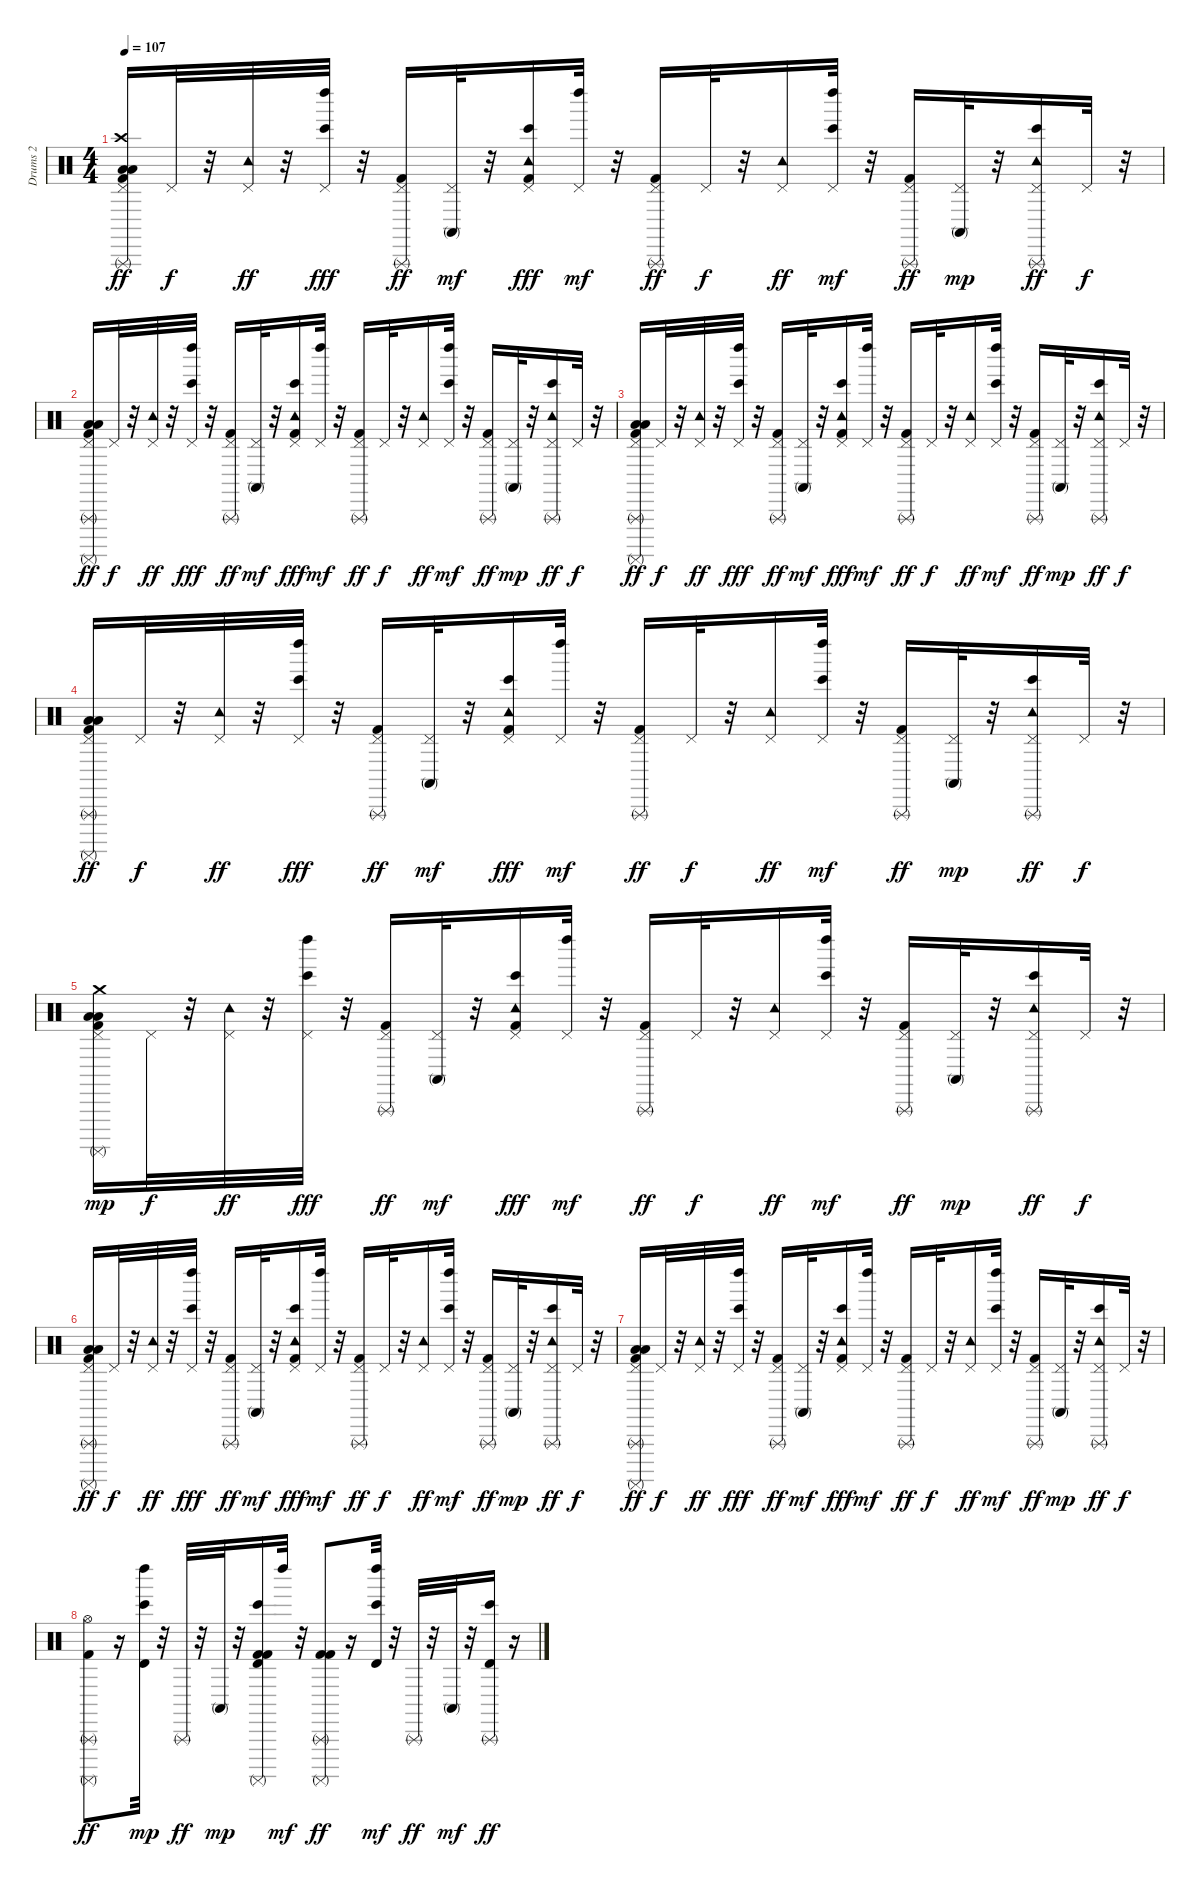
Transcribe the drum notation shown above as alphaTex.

\track ("Drums 2" "Drums 2") {instrument percussion}
\staff {score}
\articulation defaults
\ts (4 4)
\tempo 107
\clef neutral
\ks c
("Kick (hit) 2" "Pedal Hi-Hat (hit)" "Low Tom (hit)" "Low Floor Tom (hit)" "Crash high (hit)" "Triangle (rnute)").16{dy ff} "Pedal Hi-Hat (hit)".32{dy f} r.32 ("Tambourine (hit)" "Pedal Hi-Hat (hit)").32{dy ff} r.32 ("Pedal Hi-Hat (hit)" "Bongo High (hit)" "Left Maraca (hit)").32{dy fff} r.32 ("Kick (hit) 2" "Pedal Hi-Hat (hit)" "Triangle (rnute)").16{dy ff} ("Pedal Hi-Hat (hit)" "Conga high (mute)").32{dy mf} r.32 ("Kick (hit) 2" "Tambourine (hit)" "Pedal Hi-Hat (hit)" "Bongo High (hit)").16{dy fff} ("Pedal Hi-Hat (hit)" "Left Maraca (hit)").32{dy mf} r.32 ("Kick (hit) 2" "Pedal Hi-Hat (hit)" "Triangle (rnute)").16{dy ff} "Pedal Hi-Hat (hit)".32{dy f} r.32 ("Tambourine (hit)" "Pedal Hi-Hat (hit)").16{dy ff} ("Pedal Hi-Hat (hit)" "Bongo High (hit)" "Left Maraca (hit)").32{dy mf} r.32 ("Kick (hit) 2" "Pedal Hi-Hat (hit)" "Triangle (rnute)").16{dy ff} ("Pedal Hi-Hat (hit)" "Conga high (mute)").32{dy mp} r.32 ("Tambourine (hit)" "Pedal Hi-Hat (hit)" "Bongo High (hit)" "Triangle (rnute)").16{dy ff} "Pedal Hi-Hat (hit)".32{dy f} r.32 |
("Kick (hit) 2" "Pedal Hi-Hat (hit)" "Low Tom (hit)" "Low Floor Tom (hit)" "Surdo (mute)" "Triangle (rnute)").16{dy ff} "Pedal Hi-Hat (hit)".32{dy f} r.32 ("Tambourine (hit)" "Pedal Hi-Hat (hit)").32{dy ff} r.32 ("Pedal Hi-Hat (hit)" "Bongo High (hit)" "Left Maraca (hit)").32{dy fff} r.32 ("Kick (hit) 2" "Pedal Hi-Hat (hit)" "Triangle (rnute)").16{dy ff} ("Pedal Hi-Hat (hit)" "Conga high (mute)").32{dy mf} r.32 ("Kick (hit) 2" "Tambourine (hit)" "Pedal Hi-Hat (hit)" "Bongo High (hit)").16{dy fff} ("Pedal Hi-Hat (hit)" "Left Maraca (hit)").32{dy mf} r.32 ("Kick (hit) 2" "Pedal Hi-Hat (hit)" "Triangle (rnute)").16{dy ff} "Pedal Hi-Hat (hit)".32{dy f} r.32 ("Tambourine (hit)" "Pedal Hi-Hat (hit)").16{dy ff} ("Pedal Hi-Hat (hit)" "Bongo High (hit)" "Left Maraca (hit)").32{dy mf} r.32 ("Kick (hit) 2" "Pedal Hi-Hat (hit)" "Triangle (rnute)").16{dy ff} ("Pedal Hi-Hat (hit)" "Conga high (mute)").32{dy mp} r.32 ("Tambourine (hit)" "Pedal Hi-Hat (hit)" "Bongo High (hit)" "Triangle (rnute)").16{dy ff} "Pedal Hi-Hat (hit)".32{dy f} r.32 |
("Kick (hit) 2" "Pedal Hi-Hat (hit)" "Low Tom (hit)" "Low Floor Tom (hit)" "Surdo (mute)" "Triangle (rnute)").16{dy ff} "Pedal Hi-Hat (hit)".32{dy f} r.32 ("Tambourine (hit)" "Pedal Hi-Hat (hit)").32{dy ff} r.32 ("Pedal Hi-Hat (hit)" "Bongo High (hit)" "Left Maraca (hit)").32{dy fff} r.32 ("Kick (hit) 2" "Pedal Hi-Hat (hit)" "Triangle (rnute)").16{dy ff} ("Pedal Hi-Hat (hit)" "Conga high (mute)").32{dy mf} r.32 ("Kick (hit) 2" "Tambourine (hit)" "Pedal Hi-Hat (hit)" "Bongo High (hit)").16{dy fff} ("Pedal Hi-Hat (hit)" "Left Maraca (hit)").32{dy mf} r.32 ("Kick (hit) 2" "Pedal Hi-Hat (hit)" "Triangle (rnute)").16{dy ff} "Pedal Hi-Hat (hit)".32{dy f} r.32 ("Tambourine (hit)" "Pedal Hi-Hat (hit)").16{dy ff} ("Pedal Hi-Hat (hit)" "Bongo High (hit)" "Left Maraca (hit)").32{dy mf} r.32 ("Kick (hit) 2" "Pedal Hi-Hat (hit)" "Triangle (rnute)").16{dy ff} ("Pedal Hi-Hat (hit)" "Conga high (mute)").32{dy mp} r.32 ("Tambourine (hit)" "Pedal Hi-Hat (hit)" "Bongo High (hit)" "Triangle (rnute)").16{dy ff} "Pedal Hi-Hat (hit)".32{dy f} r.32 |
("Kick (hit) 2" "Pedal Hi-Hat (hit)" "Low Tom (hit)" "Low Floor Tom (hit)" "Surdo (mute)" "Triangle (rnute)").16{dy ff} "Pedal Hi-Hat (hit)".32{dy f} r.32 ("Tambourine (hit)" "Pedal Hi-Hat (hit)").32{dy ff} r.32 ("Pedal Hi-Hat (hit)" "Bongo High (hit)" "Left Maraca (hit)").32{dy fff} r.32 ("Kick (hit) 2" "Pedal Hi-Hat (hit)" "Triangle (rnute)").16{dy ff} ("Pedal Hi-Hat (hit)" "Conga high (mute)").32{dy mf} r.32 ("Kick (hit) 2" "Tambourine (hit)" "Pedal Hi-Hat (hit)" "Bongo High (hit)").16{dy fff} ("Pedal Hi-Hat (hit)" "Left Maraca (hit)").32{dy mf} r.32 ("Kick (hit) 2" "Pedal Hi-Hat (hit)" "Triangle (rnute)").16{dy ff} "Pedal Hi-Hat (hit)".32{dy f} r.32 ("Tambourine (hit)" "Pedal Hi-Hat (hit)").16{dy ff} ("Pedal Hi-Hat (hit)" "Bongo High (hit)" "Left Maraca (hit)").32{dy mf} r.32 ("Kick (hit) 2" "Pedal Hi-Hat (hit)" "Triangle (rnute)").16{dy ff} ("Pedal Hi-Hat (hit)" "Conga high (mute)").32{dy mp} r.32 ("Tambourine (hit)" "Pedal Hi-Hat (hit)" "Bongo High (hit)" "Triangle (rnute)").16{dy ff} "Pedal Hi-Hat (hit)".32{dy f} r.32 |
("Kick (hit) 2" "Pedal Hi-Hat (hit)" "Low Tom (hit)" "Low Floor Tom (hit)" "Surdo (mute)" "Crash medium (hit)").16{dy mp} "Pedal Hi-Hat (hit)".32{dy f} r.32 ("Tambourine (hit)" "Pedal Hi-Hat (hit)").32{dy ff} r.32 ("Pedal Hi-Hat (hit)" "Bongo High (hit)" "Left Maraca (hit)").32{dy fff} r.32 ("Kick (hit) 2" "Pedal Hi-Hat (hit)" "Triangle (rnute)").16{dy ff} ("Pedal Hi-Hat (hit)" "Conga high (mute)").32{dy mf} r.32 ("Kick (hit) 2" "Tambourine (hit)" "Pedal Hi-Hat (hit)" "Bongo High (hit)").16{dy fff} ("Pedal Hi-Hat (hit)" "Left Maraca (hit)").32{dy mf} r.32 ("Kick (hit) 2" "Pedal Hi-Hat (hit)" "Triangle (rnute)").16{dy ff} "Pedal Hi-Hat (hit)".32{dy f} r.32 ("Tambourine (hit)" "Pedal Hi-Hat (hit)").16{dy ff} ("Pedal Hi-Hat (hit)" "Bongo High (hit)" "Left Maraca (hit)").32{dy mf} r.32 ("Kick (hit) 2" "Pedal Hi-Hat (hit)" "Triangle (rnute)").16{dy ff} ("Pedal Hi-Hat (hit)" "Conga high (mute)").32{dy mp} r.32 ("Tambourine (hit)" "Pedal Hi-Hat (hit)" "Bongo High (hit)" "Triangle (rnute)").16{dy ff} "Pedal Hi-Hat (hit)".32{dy f} r.32 |
("Kick (hit) 2" "Pedal Hi-Hat (hit)" "Low Tom (hit)" "Low Floor Tom (hit)" "Surdo (mute)" "Triangle (rnute)").16{dy ff} "Pedal Hi-Hat (hit)".32{dy f} r.32 ("Tambourine (hit)" "Pedal Hi-Hat (hit)").32{dy ff} r.32 ("Pedal Hi-Hat (hit)" "Bongo High (hit)" "Left Maraca (hit)").32{dy fff} r.32 ("Kick (hit) 2" "Pedal Hi-Hat (hit)" "Triangle (rnute)").16{dy ff} ("Pedal Hi-Hat (hit)" "Conga high (mute)").32{dy mf} r.32 ("Kick (hit) 2" "Tambourine (hit)" "Pedal Hi-Hat (hit)" "Bongo High (hit)").16{dy fff} ("Pedal Hi-Hat (hit)" "Left Maraca (hit)").32{dy mf} r.32 ("Kick (hit) 2" "Pedal Hi-Hat (hit)" "Triangle (rnute)").16{dy ff} "Pedal Hi-Hat (hit)".32{dy f} r.32 ("Tambourine (hit)" "Pedal Hi-Hat (hit)").16{dy ff} ("Pedal Hi-Hat (hit)" "Bongo High (hit)" "Left Maraca (hit)").32{dy mf} r.32 ("Kick (hit) 2" "Pedal Hi-Hat (hit)" "Triangle (rnute)").16{dy ff} ("Pedal Hi-Hat (hit)" "Conga high (mute)").32{dy mp} r.32 ("Tambourine (hit)" "Pedal Hi-Hat (hit)" "Bongo High (hit)" "Triangle (rnute)").16{dy ff} "Pedal Hi-Hat (hit)".32{dy f} r.32 |
("Kick (hit) 2" "Pedal Hi-Hat (hit)" "Low Tom (hit)" "Low Floor Tom (hit)" "Surdo (mute)" "Triangle (rnute)").16{dy ff} "Pedal Hi-Hat (hit)".32{dy f} r.32 ("Tambourine (hit)" "Pedal Hi-Hat (hit)").32{dy ff} r.32 ("Pedal Hi-Hat (hit)" "Bongo High (hit)" "Left Maraca (hit)").32{dy fff} r.32 ("Kick (hit) 2" "Pedal Hi-Hat (hit)" "Triangle (rnute)").16{dy ff} ("Pedal Hi-Hat (hit)" "Conga high (mute)").32{dy mf} r.32 ("Kick (hit) 2" "Tambourine (hit)" "Pedal Hi-Hat (hit)" "Bongo High (hit)").16{dy fff} ("Pedal Hi-Hat (hit)" "Left Maraca (hit)").32{dy mf} r.32 ("Kick (hit) 2" "Pedal Hi-Hat (hit)" "Triangle (rnute)").16{dy ff} "Pedal Hi-Hat (hit)".32{dy f} r.32 ("Tambourine (hit)" "Pedal Hi-Hat (hit)").16{dy ff} ("Pedal Hi-Hat (hit)" "Bongo High (hit)" "Left Maraca (hit)").32{dy mf} r.32 ("Kick (hit) 2" "Pedal Hi-Hat (hit)" "Triangle (rnute)").16{dy ff} ("Pedal Hi-Hat (hit)" "Conga high (mute)").32{dy mp} r.32 ("Tambourine (hit)" "Pedal Hi-Hat (hit)" "Bongo High (hit)" "Triangle (rnute)").16{dy ff} "Pedal Hi-Hat (hit)".32{dy f} r.32 |
("Surdo (mute)" "Hi-Hat (open)" "Triangle (rnute)" "Kick (hit) 2").8{dy ff} r.16 ("Bongo High (hit)" "Timbale high (hit)" "Left Maraca (hit)").32{dy mp} r.32 "Triangle (rnute)".32{dy ff} r.32 "Conga high (mute)".32{dy mp} r.32 ("Bongo High (hit)" "Timbale high (hit)" "Kick (hit) 2" "Surdo (mute)" "Kick (hit) 2").16 "Left Maraca (hit)".32{dy mf} r.32 ("Kick (hit) 2" "Surdo (mute)" "Triangle (rnute)" "Kick (hit) 2").8{dy ff} r.16 ("Bongo High (hit)" "Timbale high (hit)" "Left Maraca (hit)").32{dy mf} r.32 "Triangle (rnute)".32{dy ff} r.32 "Conga high (mute)".32{dy mf} r.32 ("Bongo High (hit)" "Timbale high (hit)" "Triangle (rnute)").16{dy ff} r.16
